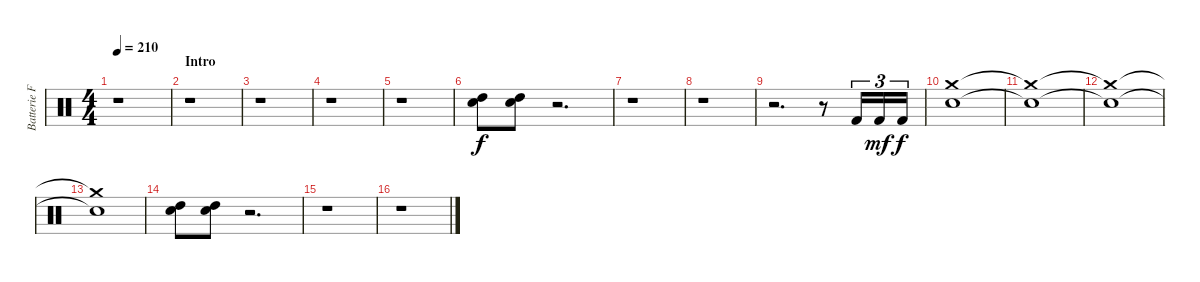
\track ("Batterie Franck" "Batterie F") {instrument percussion}
\staff {score}
\articulation defaults
\ts (4 4)
\tempo 210
\clef neutral
\ks c
r.1{dy f} |
\section ("" "Intro")
r.1 |
r.1 |
r.1 |
r.1 |
("High Tom (hit)" "Snare (hit) 2").8 ("High Tom (hit)" "Snare (hit) 2").8 r.2{d} |
r.1 |
r.1 |
r.2{d} r.8 "Kick (hit) 2".16{tu (3 2)} "Kick (hit) 2".16{tu (3 2) dy mf} "Kick (hit) 2".16{tu (3 2) dy f} |
("Crash medium (hit)" "Snare (hit) 2").1 |
("Crash medium (hit)"{t} "Snare (hit) 2"{t}).1 |
("Crash medium (hit)"{t} "Snare (hit) 2"{t}).1 |
("Crash medium (hit)"{t} "Snare (hit) 2"{t}).1 |
("High Tom (hit)" "Snare (hit) 2").8 ("High Tom (hit)" "Snare (hit) 2").8 r.2{d} |
r.1 |
r.1
